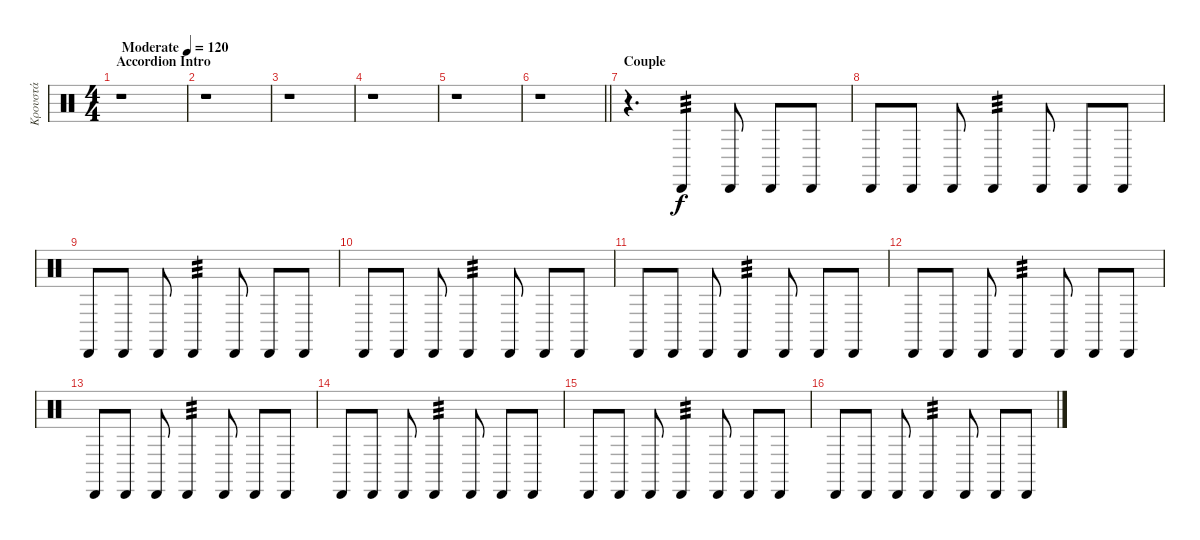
\track ("Κρουστά" "Κρουστά") {instrument percussion}
\staff {score}
\articulation defaults
\ts (4 4)
\section ("" "Accordion Intro")
\tempo (120 "Moderate")
\clef neutral
\ks c
r.1{dy f} |
r.1 |
r.1 |
r.1 |
r.1 |
\barLineRight lightlight
r.1 |
\section ("" "Couple")
r.4{d} "Cabasa (hit)".4{tp 3} "Cabasa (hit)".8 "Cabasa (hit)".8 "Cabasa (hit)".8 |
"Cabasa (hit)".8 "Cabasa (hit)".8 "Cabasa (hit)".8 "Cabasa (hit)".4{tp 3} "Cabasa (hit)".8 "Cabasa (hit)".8 "Cabasa (hit)".8 |
"Cabasa (hit)".8 "Cabasa (hit)".8 "Cabasa (hit)".8 "Cabasa (hit)".4{tp 3} "Cabasa (hit)".8 "Cabasa (hit)".8 "Cabasa (hit)".8 |
"Cabasa (hit)".8 "Cabasa (hit)".8 "Cabasa (hit)".8 "Cabasa (hit)".4{tp 3} "Cabasa (hit)".8 "Cabasa (hit)".8 "Cabasa (hit)".8 |
"Cabasa (hit)".8 "Cabasa (hit)".8 "Cabasa (hit)".8 "Cabasa (hit)".4{tp 3} "Cabasa (hit)".8 "Cabasa (hit)".8 "Cabasa (hit)".8 |
"Cabasa (hit)".8 "Cabasa (hit)".8 "Cabasa (hit)".8 "Cabasa (hit)".4{tp 3} "Cabasa (hit)".8 "Cabasa (hit)".8 "Cabasa (hit)".8 |
"Cabasa (hit)".8 "Cabasa (hit)".8 "Cabasa (hit)".8 "Cabasa (hit)".4{tp 3} "Cabasa (hit)".8 "Cabasa (hit)".8 "Cabasa (hit)".8 |
"Cabasa (hit)".8 "Cabasa (hit)".8 "Cabasa (hit)".8 "Cabasa (hit)".4{tp 3} "Cabasa (hit)".8 "Cabasa (hit)".8 "Cabasa (hit)".8 |
"Cabasa (hit)".8 "Cabasa (hit)".8 "Cabasa (hit)".8 "Cabasa (hit)".4{tp 3} "Cabasa (hit)".8 "Cabasa (hit)".8 "Cabasa (hit)".8 |
"Cabasa (hit)".8 "Cabasa (hit)".8 "Cabasa (hit)".8 "Cabasa (hit)".4{tp 3} "Cabasa (hit)".8 "Cabasa (hit)".8 "Cabasa (hit)".8
